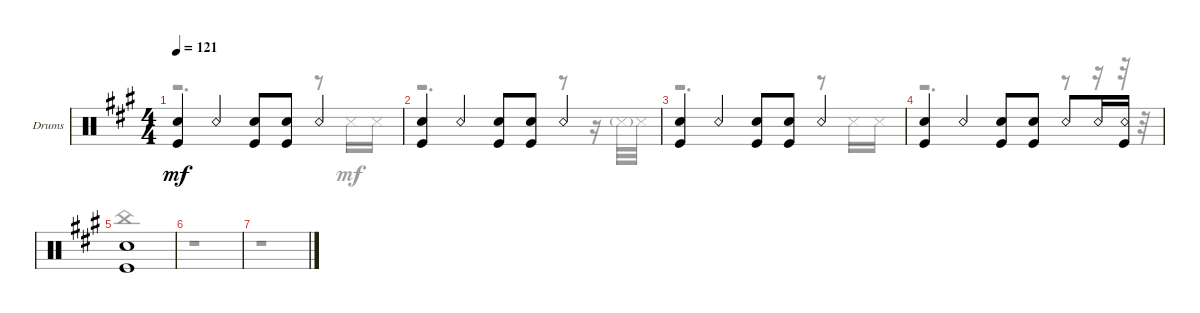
\defaultSystemsLayout 4
\bracketExtendMode groupsimilarinstruments
\firstSystemTrackNameOrientation horizontal
\otherSystemsTrackNameOrientation horizontal
\track ("Drumkit" "Drums") {instrument percussion}
\staff {score}
\articulation defaults
\voice
\ts (4 4)
\tempo 121
\clef neutral
\ks a
("Kick (hit)" "Snare (hit) 2").4{dy mf} "Snare (rim shot)".4 ("Kick (hit)" "Snare (hit) 2").8 ("Kick (hit)" "Snare (hit) 2").8 "Snare (rim shot)".4 |
("Kick (hit)" "Snare (hit) 2").4 "Snare (rim shot)".4 ("Kick (hit)" "Snare (hit) 2").8 ("Kick (hit)" "Snare (hit) 2").8 "Snare (rim shot)".4 |
("Kick (hit)" "Snare (hit) 2").4 "Snare (rim shot)".4 ("Kick (hit)" "Snare (hit) 2").8 ("Kick (hit)" "Snare (hit) 2").8 "Snare (rim shot)".4 |
("Kick (hit)" "Snare (hit) 2").4 "Snare (rim shot)".4 ("Kick (hit)" "Snare (hit) 2").8 ("Kick (hit)" "Snare (hit) 2").8 "Snare (rim shot)".8 "Snare (rim shot)".16 ("Snare (rim shot)" "Kick (hit)").16 |
("Snare (hit) 2" "Kick (hit)").1 |
|
\voice
\clef neutral
\ottava regular
\simile none
\ks a
r.2{d dy mf} r.8 "Snare (side stick) 3".16 "Snare (side stick) 3".16 |
r.2{d} r.8 r.16 "Snare (side stick) 3"{g}.32 "Snare (side stick) 3".32 |
r.2{d} r.8 "Snare (side stick) 3".16 "Snare (side stick) 3".16 |
r.2{d} r.8 r.16 r.32 r.32 |
"China (hit)".1 |
r.1 |
r.1
